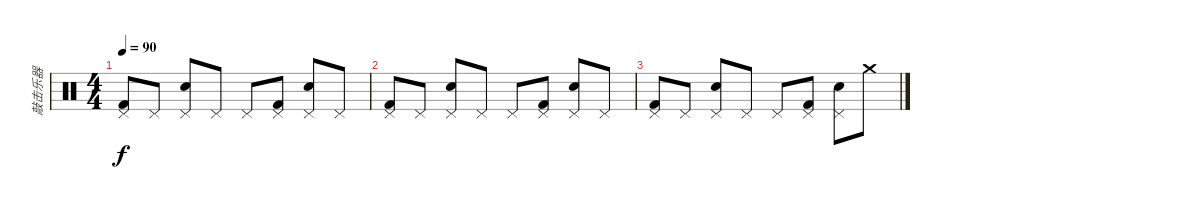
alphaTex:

\track ("敲击乐器" "敲击乐器") {instrument percussion}
\staff {score}
\articulation defaults
\ts (4 4)
\tempo 90
\clef neutral
\ks c
("Pedal Hi-Hat (hit)" "Kick (hit) 2").8{dy f} "Pedal Hi-Hat (hit)".8 ("Pedal Hi-Hat (hit)" "Electric Snare (hit)").8 "Pedal Hi-Hat (hit)".8 "Pedal Hi-Hat (hit)".8 ("Pedal Hi-Hat (hit)" "Kick (hit) 2").8 ("Pedal Hi-Hat (hit)" "Electric Snare (hit)").8 "Pedal Hi-Hat (hit)".8 |
("Pedal Hi-Hat (hit)" "Kick (hit) 2").8 "Pedal Hi-Hat (hit)".8 ("Pedal Hi-Hat (hit)" "Electric Snare (hit)").8 "Pedal Hi-Hat (hit)".8 "Pedal Hi-Hat (hit)".8 ("Pedal Hi-Hat (hit)" "Kick (hit) 2").8 ("Pedal Hi-Hat (hit)" "Electric Snare (hit)").8 "Pedal Hi-Hat (hit)".8 |
("Pedal Hi-Hat (hit)" "Kick (hit) 2").8 "Pedal Hi-Hat (hit)".8 ("Pedal Hi-Hat (hit)" "Electric Snare (hit)").8 "Pedal Hi-Hat (hit)".8 "Pedal Hi-Hat (hit)".8 ("Pedal Hi-Hat (hit)" "Kick (hit) 2").8 ("Pedal Hi-Hat (hit)" "Electric Snare (hit)").8 "Crash medium (hit)".8
